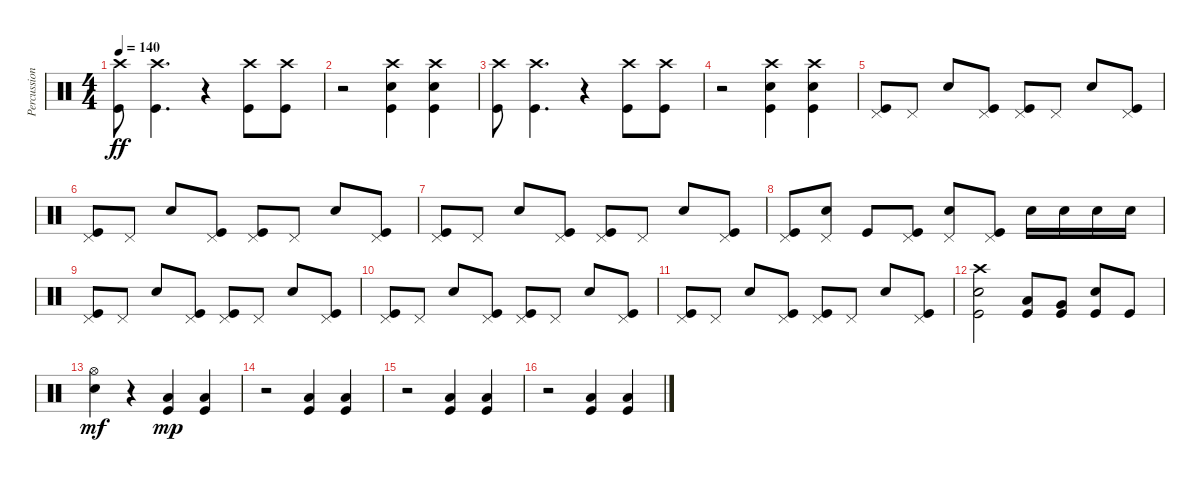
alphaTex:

\track ("Percussion" "Percussion") {instrument percussion}
\staff {score}
\articulation defaults
\ts (4 4)
\tempo 140
\clef neutral
\ks c
("Crash high (hit)" "Kick (hit)").8{dy ff} ("Crash high (hit)" "Kick (hit)").4{d} r.4 ("Crash high (hit)" "Kick (hit)").8 ("Crash high (hit)" "Kick (hit)").8 |
r.2 ("Crash high (hit)" "Kick (hit)" "Snare (hit) 2").4 ("Crash high (hit)" "Kick (hit)" "Snare (hit) 2").4 |
("Crash high (hit)" "Kick (hit)").8 ("Crash high (hit)" "Kick (hit)").4{d} r.4 ("Crash high (hit)" "Kick (hit)").8 ("Crash high (hit)" "Kick (hit)").8 |
r.2 ("Crash high (hit)" "Kick (hit)" "Snare (hit) 2").4 ("Crash high (hit)" "Kick (hit)" "Snare (hit) 2").4 |
("Pedal Hi-Hat (hit)" "Kick (hit)").8 "Pedal Hi-Hat (hit)".8 "Snare (hit) 2".8 ("Pedal Hi-Hat (hit)" "Kick (hit)").8 ("Pedal Hi-Hat (hit)" "Kick (hit)").8 "Pedal Hi-Hat (hit)".8 "Snare (hit) 2".8 ("Pedal Hi-Hat (hit)" "Kick (hit)").8 |
("Pedal Hi-Hat (hit)" "Kick (hit)").8 "Pedal Hi-Hat (hit)".8 "Snare (hit) 2".8 ("Pedal Hi-Hat (hit)" "Kick (hit)").8 ("Pedal Hi-Hat (hit)" "Kick (hit)").8 "Pedal Hi-Hat (hit)".8 "Snare (hit) 2".8 ("Pedal Hi-Hat (hit)" "Kick (hit)").8 |
("Pedal Hi-Hat (hit)" "Kick (hit)").8 "Pedal Hi-Hat (hit)".8 "Snare (hit) 2".8 ("Pedal Hi-Hat (hit)" "Kick (hit)").8 ("Pedal Hi-Hat (hit)" "Kick (hit)").8 "Pedal Hi-Hat (hit)".8 "Snare (hit) 2".8 ("Pedal Hi-Hat (hit)" "Kick (hit)").8 |
("Pedal Hi-Hat (hit)" "Kick (hit)").8 ("Pedal Hi-Hat (hit)" "Snare (hit) 2").8 "Kick (hit)".8 ("Pedal Hi-Hat (hit)" "Kick (hit)").8 ("Pedal Hi-Hat (hit)" "Snare (hit) 2").8 ("Pedal Hi-Hat (hit)" "Kick (hit)").8 "Snare (hit) 2".16 "Snare (hit) 2".16 "Snare (hit) 2".16 "Snare (hit) 2".16 |
("Pedal Hi-Hat (hit)" "Kick (hit)").8 "Pedal Hi-Hat (hit)".8 "Snare (hit) 2".8 ("Pedal Hi-Hat (hit)" "Kick (hit)").8 ("Pedal Hi-Hat (hit)" "Kick (hit)").8 "Pedal Hi-Hat (hit)".8 "Snare (hit) 2".8 ("Pedal Hi-Hat (hit)" "Kick (hit)").8 |
("Pedal Hi-Hat (hit)" "Kick (hit)").8 "Pedal Hi-Hat (hit)".8 "Snare (hit) 2".8 ("Pedal Hi-Hat (hit)" "Kick (hit)").8 ("Pedal Hi-Hat (hit)" "Kick (hit)").8 "Pedal Hi-Hat (hit)".8 "Snare (hit) 2".8 ("Pedal Hi-Hat (hit)" "Kick (hit)").8 |
("Pedal Hi-Hat (hit)" "Kick (hit)").8 "Pedal Hi-Hat (hit)".8 "Snare (hit) 2".8 ("Pedal Hi-Hat (hit)" "Kick (hit)").8 ("Pedal Hi-Hat (hit)" "Kick (hit)").8 "Pedal Hi-Hat (hit)".8 "Snare (hit) 2".8 ("Pedal Hi-Hat (hit)" "Kick (hit)").8 |
("Crash high (hit)" "Kick (hit)" "Snare (hit) 2").2 ("Kick (hit)" "Low Tom (hit)").8 ("Kick (hit)" "Very Low Tom (hit)").8 ("Kick (hit)" "Snare (hit) 2").8 "Kick (hit)".8 |
("Hi-Hat (open)" "Snare (hit) 2").4{dy mf} r.4 ("Kick (hit)" "Low Tom (hit)").4{dy mp} ("Kick (hit)" "Low Tom (hit)").4 |
r.2 ("Kick (hit)" "Low Tom (hit)").4 ("Kick (hit)" "Low Tom (hit)").4 |
r.2 ("Kick (hit)" "Low Tom (hit)").4 ("Kick (hit)" "Low Tom (hit)").4 |
r.2 ("Kick (hit)" "Low Tom (hit)").4 ("Kick (hit)" "Low Tom (hit)").4
